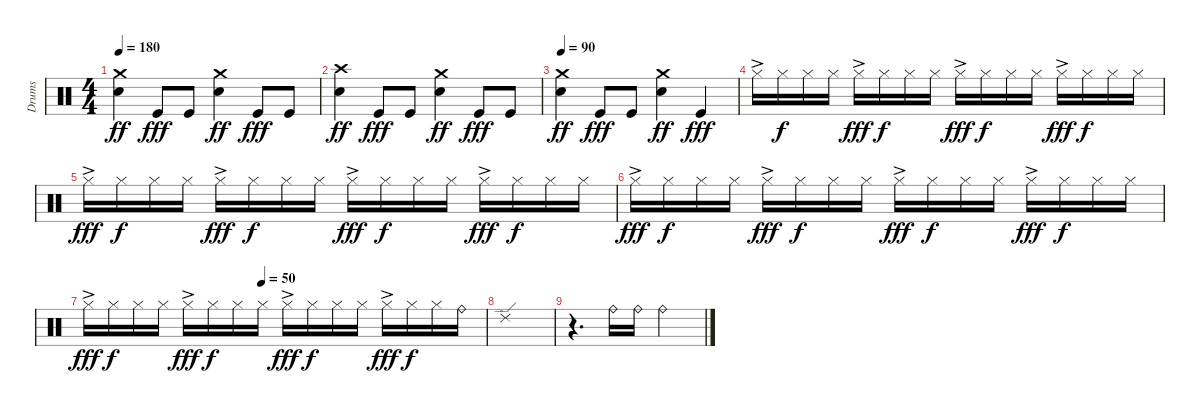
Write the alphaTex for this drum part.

\track ("Drums" "Drums") {instrument percussion}
\staff {score}
\articulation defaults
\ts (4 4)
\tempo 180
\clef neutral
\ks aminor
("Crash medium (hit)" "Snare (hit) 2").4{dy ff} "Kick (hit)".8{dy fff} "Kick (hit)".8 ("Crash medium (hit)" "Snare (hit) 2").4{dy ff} "Kick (hit)".8{dy fff} "Kick (hit)".8 |
("Crash high (hit)" "Snare (hit) 2").4{dy ff} "Kick (hit)".8{dy fff} "Kick (hit)".8 ("Crash medium (hit)" "Snare (hit) 2").4{dy ff} "Kick (hit)".8{dy fff} "Kick (hit)".8 |
\tempo 90
("Crash medium (hit)" "Snare (hit) 2").4{dy ff} "Kick (hit)".8{dy fff} "Kick (hit)".8 ("Crash medium (hit)" "Snare (hit) 2").4{dy ff} "Kick (hit)".4{dy fff} |
"Hi-Hat (closed)"{ac}.16 "Hi-Hat (closed)".16{dy f} "Hi-Hat (closed)".16 "Hi-Hat (closed)".16 "Hi-Hat (closed)"{ac}.16{dy fff} "Hi-Hat (closed)".16{dy f} "Hi-Hat (closed)".16 "Hi-Hat (closed)".16 "Hi-Hat (closed)"{ac}.16{dy fff} "Hi-Hat (closed)".16{dy f} "Hi-Hat (closed)".16 "Hi-Hat (closed)".16 "Hi-Hat (closed)"{ac}.16{dy fff} "Hi-Hat (closed)".16{dy f} "Hi-Hat (closed)".16 "Hi-Hat (closed)".16 |
"Hi-Hat (closed)"{ac}.16{dy fff} "Hi-Hat (closed)".16{dy f} "Hi-Hat (closed)".16 "Hi-Hat (closed)".16 "Hi-Hat (closed)"{ac}.16{dy fff} "Hi-Hat (closed)".16{dy f} "Hi-Hat (closed)".16 "Hi-Hat (closed)".16 "Hi-Hat (closed)"{ac}.16{dy fff} "Hi-Hat (closed)".16{dy f} "Hi-Hat (closed)".16 "Hi-Hat (closed)".16 "Hi-Hat (closed)"{ac}.16{dy fff} "Hi-Hat (closed)".16{dy f} "Hi-Hat (closed)".16 "Hi-Hat (closed)".16 |
"Hi-Hat (closed)"{ac}.16{dy fff} "Hi-Hat (closed)".16{dy f} "Hi-Hat (closed)".16 "Hi-Hat (closed)".16 "Hi-Hat (closed)"{ac}.16{dy fff} "Hi-Hat (closed)".16{dy f} "Hi-Hat (closed)".16 "Hi-Hat (closed)".16 "Hi-Hat (closed)"{ac}.16{dy fff} "Hi-Hat (closed)".16{dy f} "Hi-Hat (closed)".16 "Hi-Hat (closed)".16 "Hi-Hat (closed)"{ac}.16{dy fff} "Hi-Hat (closed)".16{dy f} "Hi-Hat (closed)".16 "Hi-Hat (closed)".16 |
\tempo (50 0.4375)
"Hi-Hat (closed)"{ac}.16{dy fff} "Hi-Hat (closed)".16{dy f} "Hi-Hat (closed)".16 "Hi-Hat (closed)".16 "Hi-Hat (closed)"{ac}.16{dy fff} "Hi-Hat (closed)".16{dy f} "Hi-Hat (closed)".16 "Hi-Hat (closed)".16 "Hi-Hat (closed)"{ac}.16{dy fff} "Hi-Hat (closed)".16{dy f} "Hi-Hat (closed)".16 "Hi-Hat (closed)".16 "Hi-Hat (closed)"{ac}.16{dy fff} "Hi-Hat (closed)".16{dy f} "Hi-Hat (closed)".16 "Ride (bell)".16 |
"Ride (edge) 2".1 |
r.4{d} "Ride (bell)".16 "Ride (bell)".16 "Ride (bell)".2
